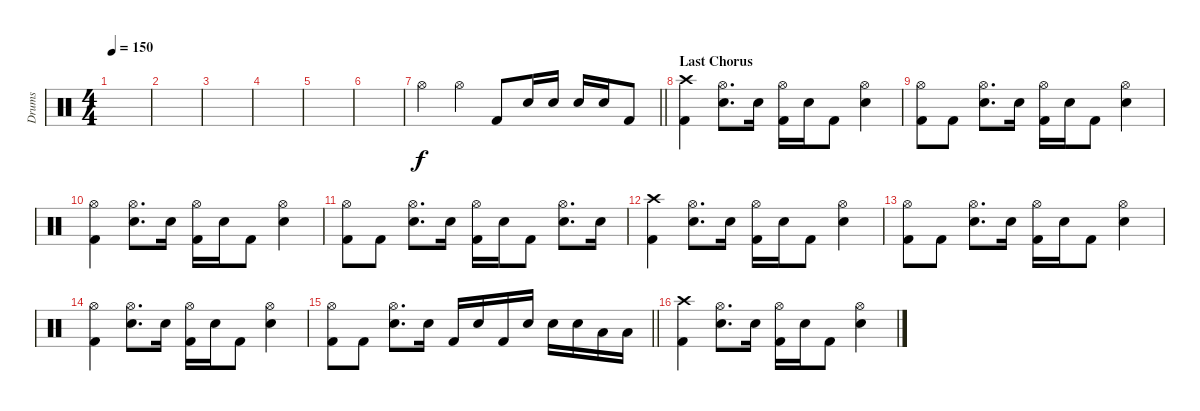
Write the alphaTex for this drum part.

\track ("Drums" "Drums") {instrument percussion}
\staff {score}
\articulation defaults
\ts (4 4)
\tempo 150
\clef neutral
\ks c
|
|
|
|
|
|
\barLineRight lightlight "Hi-Hat (open)".4 "Hi-Hat (open)".4 "Kick (hit) 2".8 "Snare (hit) 2".16 "Snare (hit) 2".16 "Snare (hit) 2".16 "Snare (hit) 2".16 "Kick (hit) 2".8
|
\section ("" "Last Chorus")
("Crash high (hit)" "Kick (hit) 2").4 ("Hi-Hat (open)" "Snare (hit) 2").8{d} "Snare (hit) 2".16 ("Hi-Hat (open)" "Kick (hit) 2").16 "Snare (hit) 2".16 "Kick (hit) 2".8 ("Hi-Hat (open)" "Snare (hit) 2").4 |
("Hi-Hat (open)" "Kick (hit) 2").8 "Kick (hit) 2".8 ("Hi-Hat (open)" "Snare (hit) 2").8{d} "Snare (hit) 2".16 ("Hi-Hat (open)" "Kick (hit) 2").16 "Snare (hit) 2".16 "Kick (hit) 2".8 ("Hi-Hat (open)" "Snare (hit) 2").4 |
("Hi-Hat (open)" "Kick (hit) 2").4 ("Hi-Hat (open)" "Snare (hit) 2").8{d} "Snare (hit) 2".16 ("Hi-Hat (open)" "Kick (hit) 2").16 "Snare (hit) 2".16 "Kick (hit) 2".8 ("Hi-Hat (open)" "Snare (hit) 2").4 |
("Hi-Hat (open)" "Kick (hit) 2").8 "Kick (hit) 2".8 ("Hi-Hat (open)" "Snare (hit) 2").8{d} "Snare (hit) 2".16 ("Hi-Hat (open)" "Kick (hit) 2").16 "Snare (hit) 2".16 "Kick (hit) 2".8 ("Hi-Hat (open)" "Snare (hit) 2").8{d} "Snare (hit) 2".16 |
("Crash high (hit)" "Kick (hit) 2").4 ("Hi-Hat (open)" "Snare (hit) 2").8{d} "Snare (hit) 2".16 ("Hi-Hat (open)" "Kick (hit) 2").16 "Snare (hit) 2".16 "Kick (hit) 2".8 ("Hi-Hat (open)" "Snare (hit) 2").4 |
("Hi-Hat (open)" "Kick (hit) 2").8 "Kick (hit) 2".8 ("Hi-Hat (open)" "Snare (hit) 2").8{d} "Snare (hit) 2".16 ("Hi-Hat (open)" "Kick (hit) 2").16 "Snare (hit) 2".16 "Kick (hit) 2".8 ("Hi-Hat (open)" "Snare (hit) 2").4 |
("Hi-Hat (open)" "Kick (hit) 2").4 ("Hi-Hat (open)" "Snare (hit) 2").8{d} "Snare (hit) 2".16 ("Hi-Hat (open)" "Kick (hit) 2").16 "Snare (hit) 2".16 "Kick (hit) 2".8 ("Hi-Hat (open)" "Snare (hit) 2").4 |
\barLineRight lightlight
("Hi-Hat (open)" "Kick (hit) 2").8 "Kick (hit) 2".8 ("Hi-Hat (open)" "Snare (hit) 2").8{d} "Snare (hit) 2".16 "Kick (hit) 2".16 "Snare (hit) 2".16 "Kick (hit) 2".16 "Snare (hit) 2".16 "Snare (hit) 2".16 "Snare (hit) 2".16 "Low Tom (hit)".16 "Low Tom (hit)".16 |
("Crash high (hit)" "Kick (hit) 2").4 ("Hi-Hat (open)" "Snare (hit) 2").8{d} "Snare (hit) 2".16 ("Hi-Hat (open)" "Kick (hit) 2").16 "Snare (hit) 2".16 "Kick (hit) 2".8 ("Hi-Hat (open)" "Snare (hit) 2").4
